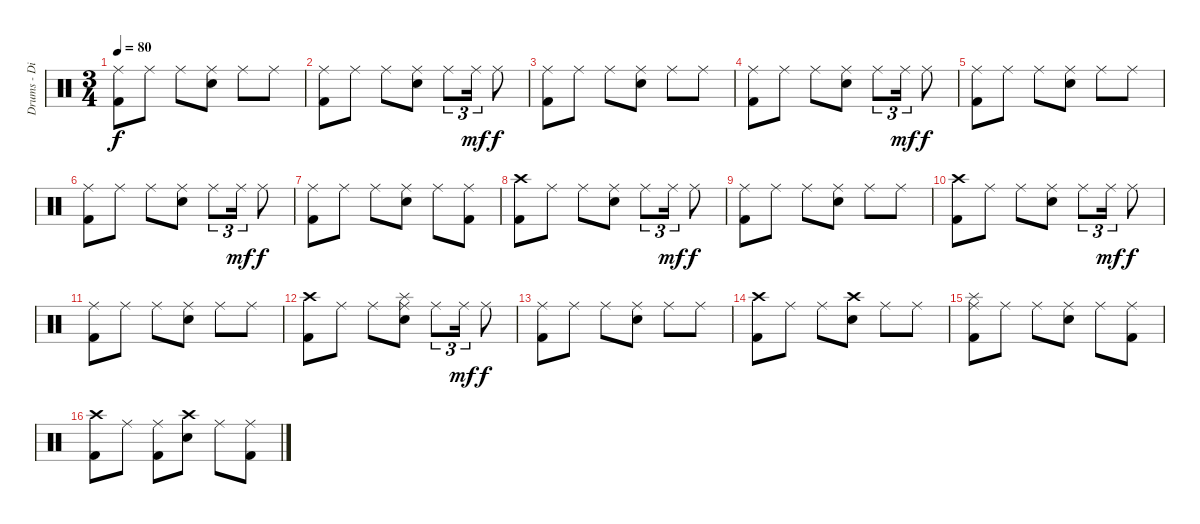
\track ("Drums - Dino Campanella" "Drums - Di") {instrument percussion}
\staff {score}
\articulation defaults
\ts (3 4)
\tempo 80
\clef neutral
\ks c
("Ride (middle)" "Kick (hit) 2").8{dy f} "Ride (middle)".8 "Ride (middle)".8 ("Ride (middle)" "Electric Snare (hit)").8 "Ride (middle)".8 "Ride (middle)".8 |
("Ride (middle)" "Kick (hit) 2").8 "Ride (middle)".8 "Ride (middle)".8 ("Ride (middle)" "Electric Snare (hit)").8 "Ride (middle)".8{tu (3 2)} "Ride (middle)".16{tu (3 2) dy mf} "Ride (middle)".8{dy f} |
("Ride (middle)" "Kick (hit) 2").8 "Ride (middle)".8 "Ride (middle)".8 ("Ride (middle)" "Electric Snare (hit)").8 "Ride (middle)".8 "Ride (middle)".8 |
("Ride (middle)" "Kick (hit) 2").8 "Ride (middle)".8 "Ride (middle)".8 ("Ride (middle)" "Electric Snare (hit)").8 "Ride (middle)".8{tu (3 2)} "Ride (middle)".16{tu (3 2) dy mf} "Ride (middle)".8{dy f} |
("Ride (middle)" "Kick (hit) 2").8 "Ride (middle)".8 "Ride (middle)".8 ("Ride (middle)" "Electric Snare (hit)").8 "Ride (middle)".8 "Ride (middle)".8 |
("Ride (middle)" "Kick (hit) 2").8 "Ride (middle)".8 "Ride (middle)".8 ("Ride (middle)" "Electric Snare (hit)").8 "Ride (middle)".8{tu (3 2)} "Ride (middle)".16{tu (3 2) dy mf} "Ride (middle)".8{dy f} |
("Ride (middle)" "Kick (hit) 2").8 "Ride (middle)".8 "Ride (middle)".8 ("Ride (middle)" "Electric Snare (hit)").8 "Ride (middle)".8 ("Ride (middle)" "Kick (hit) 2").8 |
("Crash high (hit)" "Kick (hit) 2").8 "Ride (middle)".8 "Ride (middle)".8 ("Ride (middle)" "Electric Snare (hit)").8 "Ride (middle)".8{tu (3 2)} "Ride (middle)".16{tu (3 2) dy mf} "Ride (middle)".8{dy f} |
("Ride (middle)" "Kick (hit) 2").8 "Ride (middle)".8 "Ride (middle)".8 ("Ride (middle)" "Electric Snare (hit)").8 "Ride (middle)".8 "Ride (middle)".8 |
("Crash high (hit)" "Kick (hit) 2").8 "Ride (middle)".8 "Ride (middle)".8 ("Ride (middle)" "Electric Snare (hit)").8 "Ride (middle)".8{tu (3 2)} "Ride (middle)".16{tu (3 2) dy mf} "Ride (middle)".8{dy f} |
("Ride (middle)" "Kick (hit) 2").8 "Ride (middle)".8 "Ride (middle)".8 ("Ride (middle)" "Electric Snare (hit)").8 "Ride (middle)".8 "Ride (middle)".8 |
("Crash high (hit)" "Kick (hit) 2").8 "Ride (middle)".8 "Ride (middle)".8 ("Splash (hit)" "Ride (middle)" "Electric Snare (hit)").8 "Ride (middle)".8{tu (3 2)} "Ride (middle)".16{tu (3 2) dy mf} "Ride (middle)".8{dy f} |
("Ride (middle)" "Kick (hit) 2").8 "Ride (middle)".8 "Ride (middle)".8 ("Ride (middle)" "Electric Snare (hit)").8 "Ride (middle)".8 "Ride (middle)".8 |
("Crash high (hit)" "Kick (hit) 2").8 "Ride (middle)".8 "Ride (middle)".8 ("Crash high (hit)" "Electric Snare (hit)").8 "Ride (middle)".8 "Ride (middle)".8 |
("Splash (hit)" "Ride (middle)" "Kick (hit) 2").8 "Ride (middle)".8 "Ride (middle)".8 ("Ride (middle)" "Electric Snare (hit)").8 "Ride (middle)".8 ("Ride (middle)" "Kick (hit) 2").8 |
("Crash high (hit)" "Kick (hit) 2").8 "Ride (middle)".8 ("Ride (middle)" "Kick (hit) 2").8 ("Crash high (hit)" "Electric Snare (hit)").8 "Ride (middle)".8 ("Ride (middle)" "Kick (hit) 2").8
